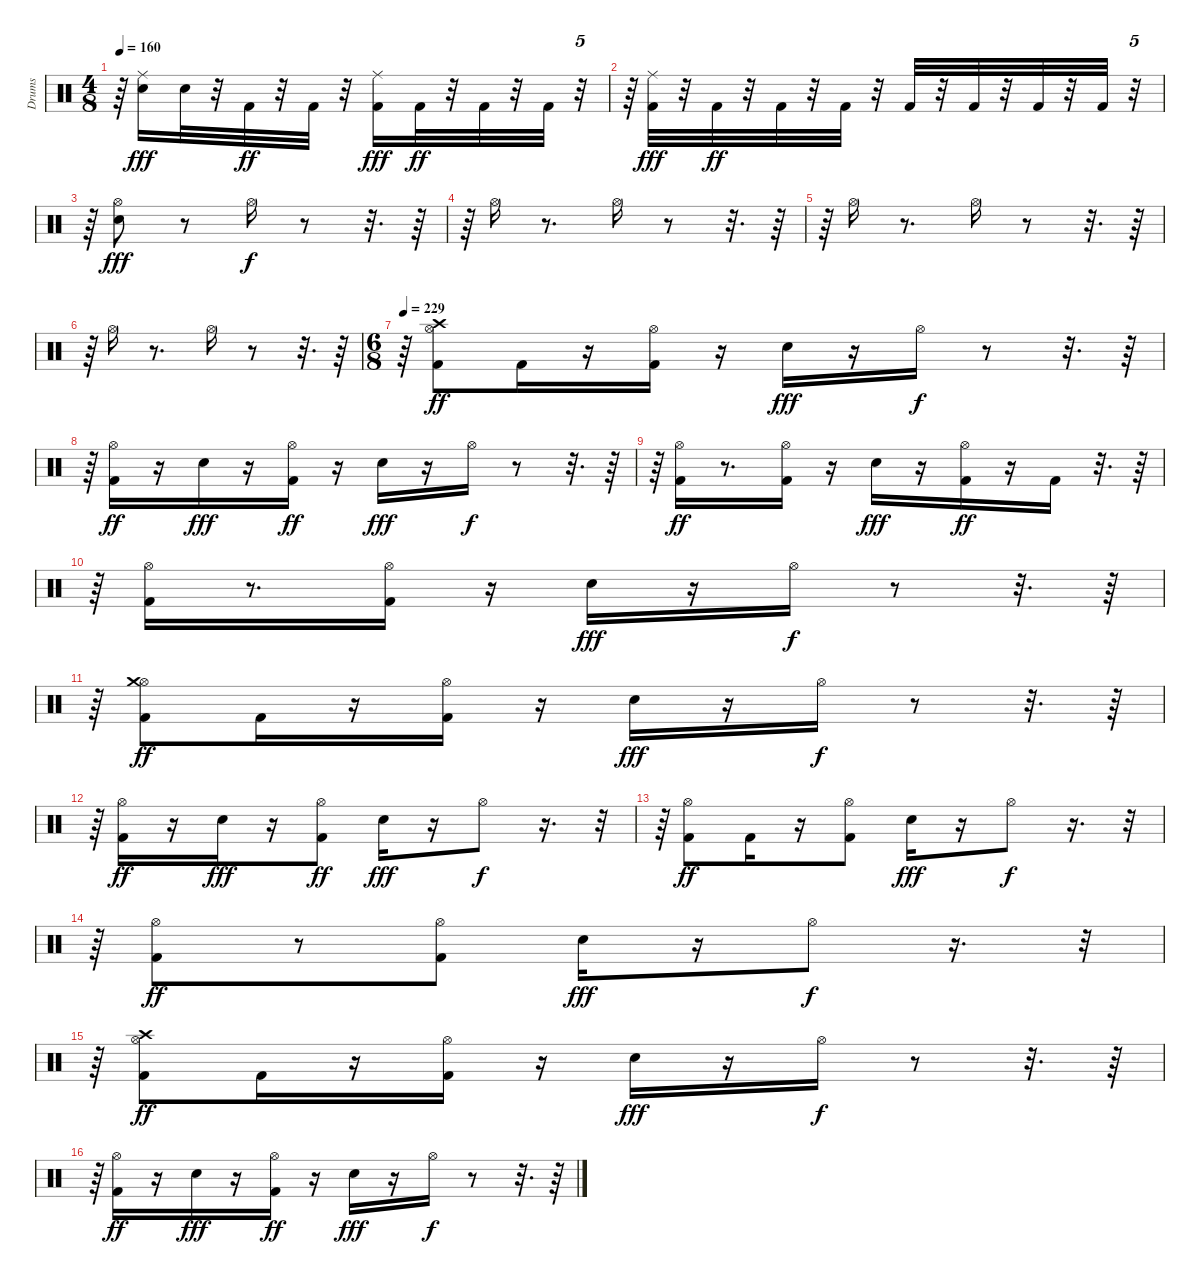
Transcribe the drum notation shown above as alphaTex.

\track ("Drums" "Drums") {instrument percussion}
\staff {score}
\articulation defaults
\ts (4 8)
\tempo 160
\clef neutral
\ks c
r.64{dy ff} ("Snare (hit) 2" "Ride (middle)").16{dy fff} "Snare (hit) 2".32 r.32 "Kick (hit) 2".32{dy ff} r.32 "Kick (hit) 2".32 r.32 ("Kick (hit) 2" "Ride (middle)").16{dy fff} "Kick (hit) 2".32{dy ff} r.32 "Kick (hit) 2".32 r.32 "Kick (hit) 2".32 r.32{tu (5 4)} |
r.64 ("Kick (hit) 2" "Ride (middle)").32{dy fff} r.32 "Kick (hit) 2".32{dy ff} r.32 "Kick (hit) 2".32 r.32 "Kick (hit) 2".32 r.32 "Kick (hit) 2".32 r.32 "Kick (hit) 2".32 r.32 "Kick (hit) 2".32 r.32 "Kick (hit) 2".32 r.32{tu (5 4)} |
r.64 ("Snare (hit) 2" "Hi-Hat (open)").8{dy fff} r.8 "Hi-Hat (open)".16{dy f} r.8 r.32{d} r.64 |
r.64 "Hi-Hat (open)".16 r.8{d} "Hi-Hat (open)".16 r.8 r.32{d} r.64 |
r.64 "Hi-Hat (open)".16 r.8{d} "Hi-Hat (open)".16 r.8 r.32{d} r.64 |
r.64 "Hi-Hat (open)".16 r.8{d} "Hi-Hat (open)".16 r.8 r.32{d} r.64 |
\ts (6 8)
\tempo 229
r.64 ("Kick (hit) 2" "Hi-Hat (open)" "Crash high (hit)").8{dy ff} "Kick (hit) 2".16 r.16 ("Kick (hit) 2" "Hi-Hat (open)").16 r.16 "Snare (hit) 2".16{dy fff} r.16 "Hi-Hat (open)".16{dy f} r.8 r.32{d} r.64 |
r.64 ("Kick (hit) 2" "Hi-Hat (open)").16{dy ff} r.16 "Snare (hit) 2".16{dy fff} r.16 ("Kick (hit) 2" "Hi-Hat (open)").16{dy ff} r.16 "Snare (hit) 2".16{dy fff} r.16 "Hi-Hat (open)".16{dy f} r.8 r.32{d} r.64 |
r.64 ("Kick (hit) 2" "Hi-Hat (open)").16{dy ff} r.8{d} ("Kick (hit) 2" "Hi-Hat (open)").16 r.16 "Snare (hit) 2".16{dy fff} r.16 ("Kick (hit) 2" "Hi-Hat (open)").16{dy ff} r.16 "Kick (hit) 2".16 r.32{d} r.64 |
r.64 ("Kick (hit) 2" "Hi-Hat (open)").16 r.8{d} ("Kick (hit) 2" "Hi-Hat (open)").16 r.16 "Snare (hit) 2".16{dy fff} r.16 "Hi-Hat (open)".16{dy f} r.8 r.32{d} r.64 |
r.64 ("Kick (hit) 2" "Hi-Hat (open)" "Crash medium (hit)").8{dy ff} "Kick (hit) 2".16 r.16 ("Kick (hit) 2" "Hi-Hat (open)").16 r.16 "Snare (hit) 2".16{dy fff} r.16 "Hi-Hat (open)".16{dy f} r.8 r.32{d} r.64 |
r.64 ("Kick (hit) 2" "Hi-Hat (open)").16{dy ff} r.16 "Snare (hit) 2".16{dy fff} r.16 ("Kick (hit) 2" "Hi-Hat (open)").8{dy ff} "Snare (hit) 2".16{dy fff} r.16 "Hi-Hat (open)".8{dy f} r.16{d} r.32{tu (5 4)} |
r.64 ("Kick (hit) 2" "Hi-Hat (open)").8{dy ff} "Kick (hit) 2".16 r.16 ("Kick (hit) 2" "Hi-Hat (open)").8 "Snare (hit) 2".16{dy fff} r.16 "Hi-Hat (open)".8{dy f} r.16{d} r.32{tu (5 4)} |
r.64 ("Kick (hit) 2" "Hi-Hat (open)").8{dy ff} r.8 ("Kick (hit) 2" "Hi-Hat (open)").8 "Snare (hit) 2".16{dy fff} r.16 "Hi-Hat (open)".8{dy f} r.16{d} r.32{tu (5 4)} |
r.64 ("Kick (hit) 2" "Hi-Hat (open)" "Crash high (hit)").8{dy ff} "Kick (hit) 2".16 r.16 ("Kick (hit) 2" "Hi-Hat (open)").16 r.16 "Snare (hit) 2".16{dy fff} r.16 "Hi-Hat (open)".16{dy f} r.8 r.32{d} r.64 |
r.64 ("Kick (hit) 2" "Hi-Hat (open)").16{dy ff} r.16 "Snare (hit) 2".16{dy fff} r.16 ("Kick (hit) 2" "Hi-Hat (open)").16{dy ff} r.16 "Snare (hit) 2".16{dy fff} r.16 "Hi-Hat (open)".16{dy f} r.8 r.32{d} r.64
